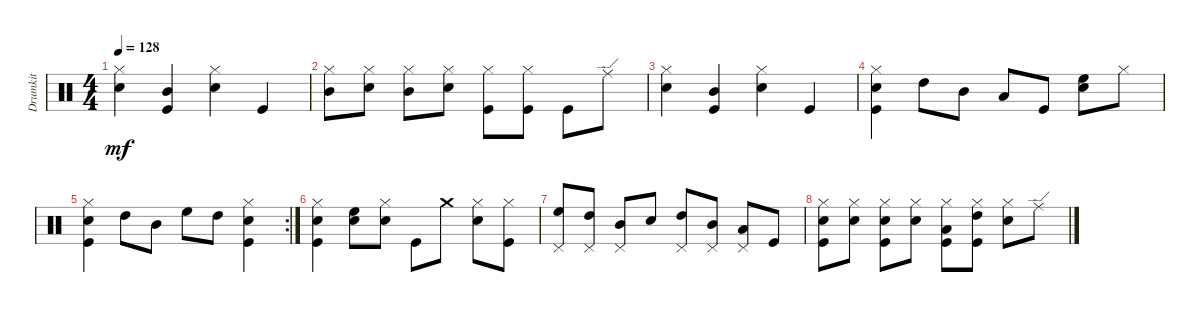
\track ("Drumkit" "Drumkit") {instrument percussion}
\staff {score}
\articulation defaults
\ts (4 4)
\tempo 128
\clef neutral
\ks c
("Hi-Hat (closed)" "Snare (hit) 2").4{dy mf} ("Kick (hit)" "Mid Tom (hit)").4 ("Snare (hit) 2" "Hi-Hat (closed)").4 "Kick (hit)".4 |
("Mid Tom (hit)" "Hi-Hat (closed)").8 ("Hi-Hat (closed)" "Snare (hit) 2").8 ("Hi-Hat (closed)" "Mid Tom (hit)").8 ("Hi-Hat (closed)" "Snare (hit) 2").8 ("Kick (hit)" "Hi-Hat (closed)").8 ("Kick (hit)" "Hi-Hat (closed)").8 "Kick (hit)".8 "Ride (edge)".8 |
("Hi-Hat (closed)" "Snare (hit) 2").4 ("Kick (hit)" "Mid Tom (hit)").4 ("Snare (hit) 2" "Hi-Hat (closed)").4 "Kick (hit)".4 |
("Hi-Hat (closed)" "Snare (hit) 2" "Kick (hit)").4 "High Tom (hit)".8 "Mid Tom (hit)".8 "Low Tom (hit)".8 "Kick (hit)".8 ("Snare (hit) 2" "High Floor Tom (hit)").8 "Hi-Hat (closed)".8 |
\rc 2
("Hi-Hat (closed)" "Snare (hit) 2" "Kick (hit)").4 "High Tom (hit)".8 "Mid Tom (hit)".8 "High Floor Tom (hit)".8 "High Tom (hit)".8 ("Hi-Hat (closed)" "Snare (hit) 2" "Kick (hit)").4 |
("Hi-Hat (closed)" "Snare (hit) 2" "Kick (hit)").4 ("Snare (hit) 2" "High Floor Tom (hit)").8 ("Hi-Hat (closed)" "Snare (hit) 2").8 "Kick (hit)".8 "Crash medium (hit)".8 ("Hi-Hat (closed)" "Snare (hit) 2").8 ("Hi-Hat (closed)" "Kick (hit)").8 |
("High Floor Tom (hit)" "Pedal Hi-Hat (hit)").8 ("High Tom (hit)" "Pedal Hi-Hat (hit)").8 ("Mid Tom (hit)" "Pedal Hi-Hat (hit)").8 "Snare (hit) 2".8 ("High Tom (hit)" "Pedal Hi-Hat (hit)").8 ("Mid Tom (hit)" "Pedal Hi-Hat (hit)").8 ("Low Tom (hit)" "Pedal Hi-Hat (hit)").8 "Kick (hit)".8 |
("Hi-Hat (closed)" "Snare (hit) 2" "Kick (hit)").8 ("Hi-Hat (closed)" "Snare (hit) 2").8 ("Snare (hit) 2" "Hi-Hat (closed)" "Kick (hit)").8 ("Snare (hit) 2" "Hi-Hat (closed)").8 ("Kick (hit)" "Hi-Hat (closed)" "Low Tom (hit)").8 ("Hi-Hat (closed)" "Kick (hit)" "High Tom (hit)").8 ("Snare (hit) 2" "Hi-Hat (closed)").8 "Ride (edge)".8
